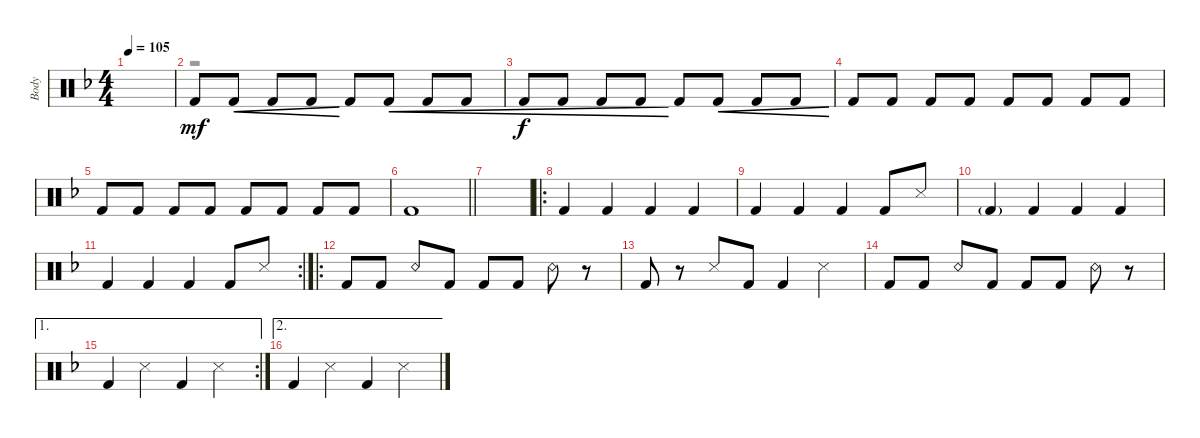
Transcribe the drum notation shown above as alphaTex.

\defaultSystemsLayout 2
\bracketExtendMode groupsimilarinstruments
\otherSystemsTrackNameOrientation horizontal
\track ("Body" "Body") {instrument percussion}
\staff {score}
\articulation defaults
\voice
\ts (4 4)
\scale
1.04804
\tempo 105
\accidentals auto
\clef neutral
\ottava regular
\simile none
\ks dminor
|
\scale
0.951961
\scale
0.333333 "Kick (hit) 2"{acc forcenatural}.8{dy mf beam Up} "Kick (hit) 2"{acc forcenatural}.8{cre beam Up} "Kick (hit) 2"{acc forcenatural}.8{cre beam Up} "Kick (hit) 2"{acc forcenatural}.8{cre beam Up} "Kick (hit) 2"{acc forcenatural}.8{beam Up} "Kick (hit) 2"{acc forcenatural}.8{cre beam Up} "Kick (hit) 2"{acc forcenatural}.8{cre beam Up} "Kick (hit) 2"{acc forcenatural}.8{cre beam Up} |
\scale
1.04804
\scale
0.333333 "Kick (hit) 2"{acc forcenatural}.8{cre dy f beam Up} "Kick (hit) 2"{acc forcenatural}.8{cre beam Up} "Kick (hit) 2"{acc forcenatural}.8{cre beam Up} "Kick (hit) 2"{acc forcenatural}.8{cre beam Up} "Kick (hit) 2"{acc forcenatural}.8{beam Up} "Kick (hit) 2"{acc forcenatural}.8{cre beam Up} "Kick (hit) 2"{acc forcenatural}.8{cre beam Up} "Kick (hit) 2"{acc forcenatural}.8{cre beam Up} |
\scale
0.951961
\scale
0.333333 "Kick (hit) 2"{acc forcenatural}.8{beam Up} "Kick (hit) 2"{acc forcenatural}.8{beam Up} "Kick (hit) 2"{acc forcenatural}.8{beam Up} "Kick (hit) 2"{acc forcenatural}.8{beam Up} "Kick (hit) 2"{acc forcenatural}.8{beam Up} "Kick (hit) 2"{acc forcenatural}.8{beam Up} "Kick (hit) 2"{acc forcenatural}.8{beam Up} "Kick (hit) 2"{acc forcenatural}.8{beam Up} |
\scale
1.04336
\scale
0.333333 "Kick (hit) 2"{acc forcenatural}.8{beam Up} "Kick (hit) 2"{acc forcenatural}.8{beam Up} "Kick (hit) 2"{acc forcenatural}.8{beam Up} "Kick (hit) 2"{acc forcenatural}.8{beam Up} "Kick (hit) 2"{acc forcenatural}.8{beam Up} "Kick (hit) 2"{acc forcenatural}.8{beam Up} "Kick (hit) 2"{acc forcenatural}.8{beam Up} "Kick (hit) 2"{acc forcenatural}.8{beam Up} |
\scale
0.95664
\scale
0.333333
\barLineRight lightlight "Kick (hit) 2"{acc forcenatural}.1{beam Up}
|
\scale
1.04286 |
\ro
\scale
0.957141
\scale
0.333333 "Kick (hit) 2"{acc forcenatural}.4{beam Up} "Kick (hit) 2"{acc forcenatural}.4{beam Up} "Kick (hit) 2"{acc forcenatural}.4{beam Up} "Kick (hit) 2"{acc forcenatural}.4{beam Up} |
\scale
1.05422
\scale
0.333333 "Kick (hit) 2"{acc forcenatural}.4{beam Up} "Kick (hit) 2"{acc forcenatural}.4{beam Up} "Kick (hit) 2"{acc forcenatural}.4{beam Up} "Kick (hit) 2"{acc forcenatural}.8{beam Up} "Snare (side stick) 3"{acc forcenatural}.8{beam Up} |
\scale
0.945776
\scale
0.333333 "Kick (hit) 2"{g acc forcenatural}.4{beam Up} "Kick (hit) 2"{acc forcenatural}.4{beam Up} "Kick (hit) 2"{acc forcenatural}.4{beam Up} "Kick (hit) 2"{acc forcenatural}.4{beam Up} |
\rc 2
\scale
1.05506
\scale
0.333333 "Kick (hit) 2"{acc forcenatural}.4{beam Up} "Kick (hit) 2"{acc forcenatural}.4{beam Up} "Kick (hit) 2"{acc forcenatural}.4{beam Up} "Kick (hit) 2"{acc forcenatural}.8{beam Up} "Snare (side stick) 3"{acc forcenatural}.8{beam Up} |
\ro
\scale
0.944942
\scale
0.333333 "Kick (hit) 2"{acc forcenatural}.8{beam Up} "Kick (hit) 2"{acc forcenatural}.8{beam Up} "Snare (rim shot)"{acc forcenatural}.8{beam Up} "Kick (hit) 2"{acc forcenatural}.8{beam Up} "Kick (hit) 2"{acc forcenatural}.8{beam Up} "Kick (hit) 2"{acc forcenatural}.8{beam Up} "Snare (rim shot)"{acc forcenatural}.8{beam Down} r.8{beam Down} |
\scale
1.05422
\scale
0.333333 "Kick (hit) 2"{acc forcenatural}.8{beam Up} r.8{beam Up} "Snare (side stick) 3"{acc forcenatural}.8{beam Up} "Kick (hit) 2"{acc forcenatural}.8{beam Up} "Kick (hit) 2"{acc forcenatural}.4{beam Up} "Snare (side stick) 3"{acc forcenatural}.4{beam Down} |
\scale
0.945776
\scale
0.333333 "Kick (hit) 2"{acc forcenatural}.8{beam Up} "Kick (hit) 2"{acc forcenatural}.8{beam Up} "Snare (rim shot)"{acc forcenatural}.8{beam Up} "Kick (hit) 2"{acc forcenatural}.8{beam Up} "Kick (hit) 2"{acc forcenatural}.8{beam Up} "Kick (hit) 2"{acc forcenatural}.8{beam Up} "Snare (rim shot)"{acc forcenatural}.8{beam Down} r.8{beam Down} |
\ae 1
\rc 2
\scale
1.06642
\scale
0.333333 "Kick (hit) 2"{acc forcenatural}.4{beam Up} "Snare (side stick) 3"{acc forcenatural}.4{beam Down} "Kick (hit) 2"{acc forcenatural}.4{beam Up} "Snare (side stick) 3"{acc forcenatural}.4{beam Down} |
\ae 2
\scale
0.933578
\scale
0.333333 "Kick (hit) 2"{acc forcenatural}.4{beam Up} "Snare (side stick) 3"{acc forcenatural}.4{beam Down} "Kick (hit) 2"{acc forcenatural}.4{beam Up} "Snare (side stick) 3"{acc forcenatural}.4{beam Down}
\voice
\clef neutral
\ottava regular
\simile none
\ks dminor
|
\scale
0.333333 r.1{beam Down} |
\scale
0.333333 |
\scale
0.333333 |
\scale
0.333333 |
\scale
0.333333
\barLineRight lightlight
|
|
\scale
0.333333 |
\scale
0.333333 |
\scale
0.333333 |
\scale
0.333333 |
\scale
0.333333 |
\scale
0.333333 |
\scale
0.333333 |
\scale
0.333333 |
\scale
0.333333
